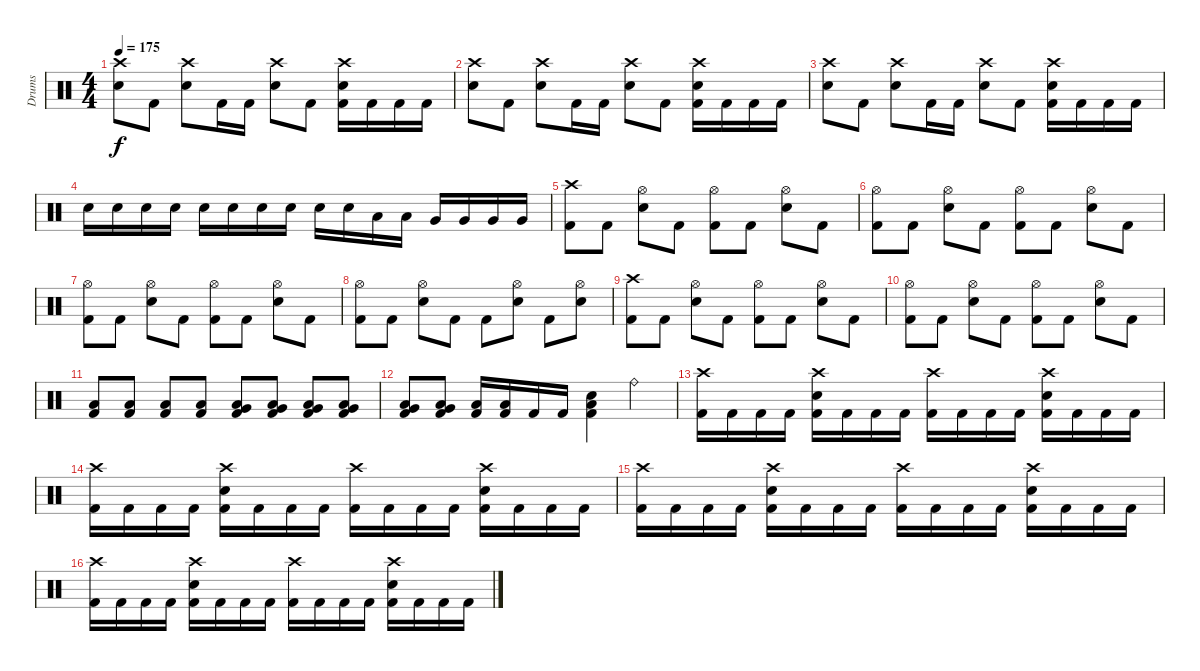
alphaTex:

\track ("Drums" "Drums") {instrument percussion}
\staff {score}
\articulation defaults
\ts (4 4)
\tempo 175
\clef neutral
\ks c
("Crash high (hit)" "Snare (hit) 2").8{dy f} "Kick (hit) 2".8 ("Crash high (hit)" "Snare (hit) 2").8 "Kick (hit) 2".16 "Kick (hit) 2".16 ("Crash high (hit)" "Snare (hit) 2").8 "Kick (hit) 2".8 ("Crash high (hit)" "Snare (hit) 2" "Kick (hit) 2").16 "Kick (hit) 2".16 "Kick (hit) 2".16 "Kick (hit) 2".16 |
("Crash high (hit)" "Snare (hit) 2").8 "Kick (hit) 2".8 ("Crash high (hit)" "Snare (hit) 2").8 "Kick (hit) 2".16 "Kick (hit) 2".16 ("Crash high (hit)" "Snare (hit) 2").8 "Kick (hit) 2".8 ("Crash high (hit)" "Snare (hit) 2" "Kick (hit) 2").16 "Kick (hit) 2".16 "Kick (hit) 2".16 "Kick (hit) 2".16 |
("Crash high (hit)" "Snare (hit) 2").8 "Kick (hit) 2".8 ("Crash high (hit)" "Snare (hit) 2").8 "Kick (hit) 2".16 "Kick (hit) 2".16 ("Crash high (hit)" "Snare (hit) 2").8 "Kick (hit) 2".8 ("Crash high (hit)" "Snare (hit) 2" "Kick (hit) 2").16 "Kick (hit) 2".16 "Kick (hit) 2".16 "Kick (hit) 2".16 |
"Snare (hit) 2".16 "Snare (hit) 2".16 "Snare (hit) 2".16 "Snare (hit) 2".16 "Snare (hit) 2".16 "Snare (hit) 2".16 "Snare (hit) 2".16 "Snare (hit) 2".16 "Snare (hit) 2".16 "Snare (hit) 2".16 "Low Tom (hit)".16 "Low Tom (hit)".16 "Very Low Tom (hit)".16 "Very Low Tom (hit)".16 "Very Low Tom (hit)".16 "Very Low Tom (hit)".16 |
("Crash high (hit)" "Kick (hit) 2").8 "Kick (hit) 2".8 ("Hi-Hat (open)" "Snare (hit) 2").8 "Kick (hit) 2".8 ("Hi-Hat (open)" "Kick (hit) 2").8 "Kick (hit) 2".8 ("Hi-Hat (open)" "Snare (hit) 2").8 "Kick (hit) 2".8 |
("Hi-Hat (open)" "Kick (hit) 2").8 "Kick (hit) 2".8 ("Hi-Hat (open)" "Snare (hit) 2").8 "Kick (hit) 2".8 ("Hi-Hat (open)" "Kick (hit) 2").8 "Kick (hit) 2".8 ("Hi-Hat (open)" "Snare (hit) 2").8 "Kick (hit) 2".8 |
("Hi-Hat (open)" "Kick (hit) 2").8 "Kick (hit) 2".8 ("Hi-Hat (open)" "Snare (hit) 2").8 "Kick (hit) 2".8 ("Hi-Hat (open)" "Kick (hit) 2").8 "Kick (hit) 2".8 ("Hi-Hat (open)" "Snare (hit) 2").8 "Kick (hit) 2".8 |
("Hi-Hat (open)" "Kick (hit) 2").8 "Kick (hit) 2".8 ("Hi-Hat (open)" "Snare (hit) 2").8 "Kick (hit) 2".8 "Kick (hit) 2".8 ("Hi-Hat (open)" "Snare (hit) 2").8 "Kick (hit) 2".8 ("Hi-Hat (open)" "Snare (hit) 2").8 |
("Crash high (hit)" "Kick (hit) 2").8 "Kick (hit) 2".8 ("Hi-Hat (open)" "Snare (hit) 2").8 "Kick (hit) 2".8 ("Hi-Hat (open)" "Kick (hit) 2").8 "Kick (hit) 2".8 ("Hi-Hat (open)" "Snare (hit) 2").8 "Kick (hit) 2".8 |
("Hi-Hat (open)" "Kick (hit) 2").8 "Kick (hit) 2".8 ("Hi-Hat (open)" "Snare (hit) 2").8 "Kick (hit) 2".8 ("Hi-Hat (open)" "Kick (hit) 2").8 "Kick (hit) 2".8 ("Hi-Hat (open)" "Snare (hit) 2").8 "Kick (hit) 2".8 |
("Low Floor Tom (hit)" "Kick (hit) 2").8 ("Low Floor Tom (hit)" "Kick (hit) 2").8 ("Low Floor Tom (hit)" "Kick (hit) 2").8 ("Low Floor Tom (hit)" "Kick (hit) 2").8 ("Very Low Tom (hit)" "Low Floor Tom (hit)" "Kick (hit) 2").8 ("Very Low Tom (hit)" "Low Floor Tom (hit)" "Kick (hit) 2").8 ("Very Low Tom (hit)" "Low Floor Tom (hit)" "Kick (hit) 2").8 ("Very Low Tom (hit)" "Low Floor Tom (hit)" "Kick (hit) 2").8 |
("Very Low Tom (hit)" "Low Floor Tom (hit)" "Kick (hit) 2").8 ("Very Low Tom (hit)" "Low Floor Tom (hit)" "Kick (hit) 2").8 ("Low Tom (hit)" "Kick (hit) 2").16 ("Low Tom (hit)" "Kick (hit) 2").16 "Kick (hit) 2".16 "Kick (hit) 2".16 ("Kick (hit) 2" "Low Floor Tom (hit)" "Snare (hit) 2").4 "Ride (bell)".4 |
("Crash high (hit)" "Kick (hit) 2").16 "Kick (hit) 2".16 "Kick (hit) 2".16 "Kick (hit) 2".16 ("Crash high (hit)" "Snare (hit) 2" "Kick (hit) 2").16 "Kick (hit) 2".16 "Kick (hit) 2".16 "Kick (hit) 2".16 ("Crash high (hit)" "Kick (hit) 2").16 "Kick (hit) 2".16 "Kick (hit) 2".16 "Kick (hit) 2".16 ("Crash high (hit)" "Snare (hit) 2" "Kick (hit) 2").16 "Kick (hit) 2".16 "Kick (hit) 2".16 "Kick (hit) 2".16 |
("Crash high (hit)" "Kick (hit) 2").16 "Kick (hit) 2".16 "Kick (hit) 2".16 "Kick (hit) 2".16 ("Crash high (hit)" "Snare (hit) 2" "Kick (hit) 2").16 "Kick (hit) 2".16 "Kick (hit) 2".16 "Kick (hit) 2".16 ("Crash high (hit)" "Kick (hit) 2").16 "Kick (hit) 2".16 "Kick (hit) 2".16 "Kick (hit) 2".16 ("Crash high (hit)" "Snare (hit) 2" "Kick (hit) 2").16 "Kick (hit) 2".16 "Kick (hit) 2".16 "Kick (hit) 2".16 |
("Crash high (hit)" "Kick (hit) 2").16 "Kick (hit) 2".16 "Kick (hit) 2".16 "Kick (hit) 2".16 ("Crash high (hit)" "Snare (hit) 2" "Kick (hit) 2").16 "Kick (hit) 2".16 "Kick (hit) 2".16 "Kick (hit) 2".16 ("Crash high (hit)" "Kick (hit) 2").16 "Kick (hit) 2".16 "Kick (hit) 2".16 "Kick (hit) 2".16 ("Crash high (hit)" "Snare (hit) 2" "Kick (hit) 2").16 "Kick (hit) 2".16 "Kick (hit) 2".16 "Kick (hit) 2".16 |
("Crash high (hit)" "Kick (hit) 2").16 "Kick (hit) 2".16 "Kick (hit) 2".16 "Kick (hit) 2".16 ("Crash high (hit)" "Snare (hit) 2" "Kick (hit) 2").16 "Kick (hit) 2".16 "Kick (hit) 2".16 "Kick (hit) 2".16 ("Crash high (hit)" "Kick (hit) 2").16 "Kick (hit) 2".16 "Kick (hit) 2".16 "Kick (hit) 2".16 ("Crash high (hit)" "Snare (hit) 2" "Kick (hit) 2").16 "Kick (hit) 2".16 "Kick (hit) 2".16 "Kick (hit) 2".16
